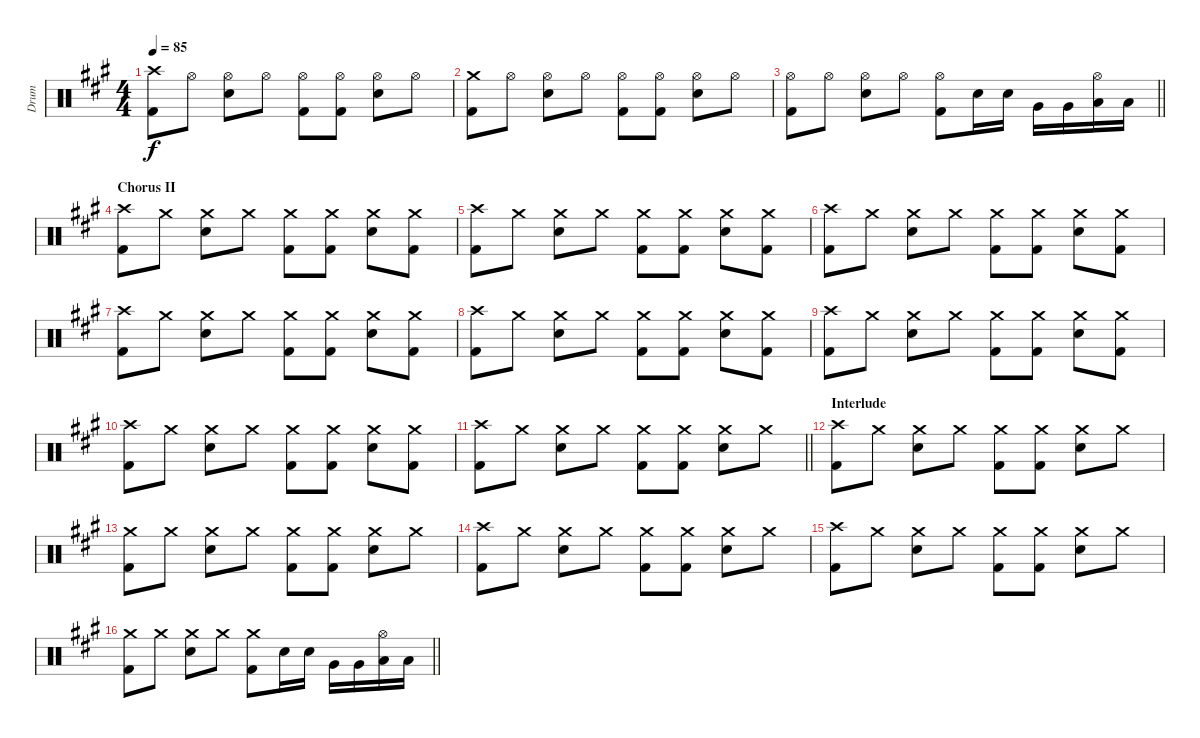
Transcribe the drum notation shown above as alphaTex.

\track ("Drum" "Drum") {instrument percussion}
\staff {score}
\articulation defaults
\ts (4 4)
\tempo 85
\clef neutral
\ks a
("Crash high (hit)" "Kick (hit) 2").8{dy f} "Hi-Hat (open)".8 ("Hi-Hat (open)" "Snare (hit) 2").8 "Hi-Hat (open)".8 ("Hi-Hat (open)" "Kick (hit) 2").8 ("Hi-Hat (open)" "Kick (hit) 2").8 ("Hi-Hat (open)" "Snare (hit) 2").8 "Hi-Hat (open)".8 |
("Kick (hit) 2" "Crash medium (hit)").8 "Hi-Hat (open)".8 ("Hi-Hat (open)" "Snare (hit) 2").8 "Hi-Hat (open)".8 ("Hi-Hat (open)" "Kick (hit) 2").8 ("Hi-Hat (open)" "Kick (hit) 2").8 ("Hi-Hat (open)" "Snare (hit) 2").8 "Hi-Hat (open)".8 |
\barLineRight lightlight
("Hi-Hat (open)" "Kick (hit) 2").8 "Hi-Hat (open)".8 ("Hi-Hat (open)" "Snare (hit) 2").8 "Hi-Hat (open)".8 ("Hi-Hat (open)" "Kick (hit) 2").8 "Snare (hit) 2".16 "Snare (hit) 2".16 "Very Low Tom (hit)".16 "Very Low Tom (hit)".16 ("Hi-Hat (open)" "Low Floor Tom (hit)").16 "Low Floor Tom (hit)".16 |
\section ("" "Chorus II")
("Crash high (hit)" "Kick (hit) 2").8 "Crash medium (hit)".8 ("Crash medium (hit)" "Snare (hit) 2").8 "Crash medium (hit)".8 ("Crash medium (hit)" "Kick (hit) 2").8 ("Crash medium (hit)" "Kick (hit) 2").8 ("Crash medium (hit)" "Snare (hit) 2").8 ("Crash medium (hit)" "Kick (hit) 2").8 |
("Crash high (hit)" "Kick (hit) 2").8 "Crash medium (hit)".8 ("Crash medium (hit)" "Snare (hit) 2").8 "Crash medium (hit)".8 ("Crash medium (hit)" "Kick (hit) 2").8 ("Crash medium (hit)" "Kick (hit) 2").8 ("Crash medium (hit)" "Snare (hit) 2").8 ("Crash medium (hit)" "Kick (hit) 2").8 |
("Crash high (hit)" "Kick (hit) 2").8 "Crash medium (hit)".8 ("Crash medium (hit)" "Snare (hit) 2").8 "Crash medium (hit)".8 ("Crash medium (hit)" "Kick (hit) 2").8 ("Crash medium (hit)" "Kick (hit) 2").8 ("Crash medium (hit)" "Snare (hit) 2").8 ("Crash medium (hit)" "Kick (hit) 2").8 |
("Crash high (hit)" "Kick (hit) 2").8 "Crash medium (hit)".8 ("Crash medium (hit)" "Snare (hit) 2").8 "Crash medium (hit)".8 ("Crash medium (hit)" "Kick (hit) 2").8 ("Crash medium (hit)" "Kick (hit) 2").8 ("Crash medium (hit)" "Snare (hit) 2").8 ("Crash medium (hit)" "Kick (hit) 2").8 |
("Crash high (hit)" "Kick (hit) 2").8 "Crash medium (hit)".8 ("Crash medium (hit)" "Snare (hit) 2").8 "Crash medium (hit)".8 ("Crash medium (hit)" "Kick (hit) 2").8 ("Crash medium (hit)" "Kick (hit) 2").8 ("Crash medium (hit)" "Snare (hit) 2").8 ("Crash medium (hit)" "Kick (hit) 2").8 |
("Crash high (hit)" "Kick (hit) 2").8 "Crash medium (hit)".8 ("Crash medium (hit)" "Snare (hit) 2").8 "Crash medium (hit)".8 ("Crash medium (hit)" "Kick (hit) 2").8 ("Crash medium (hit)" "Kick (hit) 2").8 ("Crash medium (hit)" "Snare (hit) 2").8 ("Crash medium (hit)" "Kick (hit) 2").8 |
("Crash high (hit)" "Kick (hit) 2").8 "Crash medium (hit)".8 ("Crash medium (hit)" "Snare (hit) 2").8 "Crash medium (hit)".8 ("Crash medium (hit)" "Kick (hit) 2").8 ("Crash medium (hit)" "Kick (hit) 2").8 ("Crash medium (hit)" "Snare (hit) 2").8 ("Crash medium (hit)" "Kick (hit) 2").8 |
\barLineRight lightlight
("Crash high (hit)" "Kick (hit) 2").8 "Crash medium (hit)".8 ("Crash medium (hit)" "Snare (hit) 2").8 "Crash medium (hit)".8 ("Crash medium (hit)" "Kick (hit) 2").8 ("Crash medium (hit)" "Kick (hit) 2").8 ("Crash medium (hit)" "Snare (hit) 2").8 "Crash medium (hit)".8 |
\section ("" "Interlude")
("Crash high (hit)" "Kick (hit) 2").8 "Crash medium (hit)".8 ("Snare (hit) 2" "Crash medium (hit)").8 "Crash medium (hit)".8 ("Crash medium (hit)" "Kick (hit) 2").8 ("Crash medium (hit)" "Kick (hit) 2").8 ("Crash medium (hit)" "Snare (hit) 2").8 "Crash medium (hit)".8 |
("Crash medium (hit)" "Kick (hit) 2").8 "Crash medium (hit)".8 ("Crash medium (hit)" "Snare (hit) 2").8 "Crash medium (hit)".8 ("Crash medium (hit)" "Kick (hit) 2").8 ("Crash medium (hit)" "Kick (hit) 2").8 ("Crash medium (hit)" "Snare (hit) 2").8 "Crash medium (hit)".8 |
("Crash high (hit)" "Kick (hit) 2").8 "Crash medium (hit)".8 ("Crash medium (hit)" "Snare (hit) 2").8 "Crash medium (hit)".8 ("Crash medium (hit)" "Kick (hit) 2").8 ("Crash medium (hit)" "Kick (hit) 2").8 ("Crash medium (hit)" "Snare (hit) 2").8 "Crash medium (hit)".8 |
("Crash high (hit)" "Kick (hit) 2").8 "Crash medium (hit)".8 ("Crash medium (hit)" "Snare (hit) 2").8 "Crash medium (hit)".8 ("Crash medium (hit)" "Kick (hit) 2").8 ("Crash medium (hit)" "Kick (hit) 2").8 ("Crash medium (hit)" "Snare (hit) 2").8 "Crash medium (hit)".8 |
\barLineRight lightlight
("Crash medium (hit)" "Kick (hit) 2").8 "Crash medium (hit)".8 ("Crash medium (hit)" "Snare (hit) 2").8 "Crash medium (hit)".8 ("Crash medium (hit)" "Kick (hit) 2").8 "Snare (hit) 2".16 "Snare (hit) 2".16 "Very Low Tom (hit)".16 "Very Low Tom (hit)".16 ("Hi-Hat (open)" "Low Floor Tom (hit)").16 "Low Floor Tom (hit)".16
